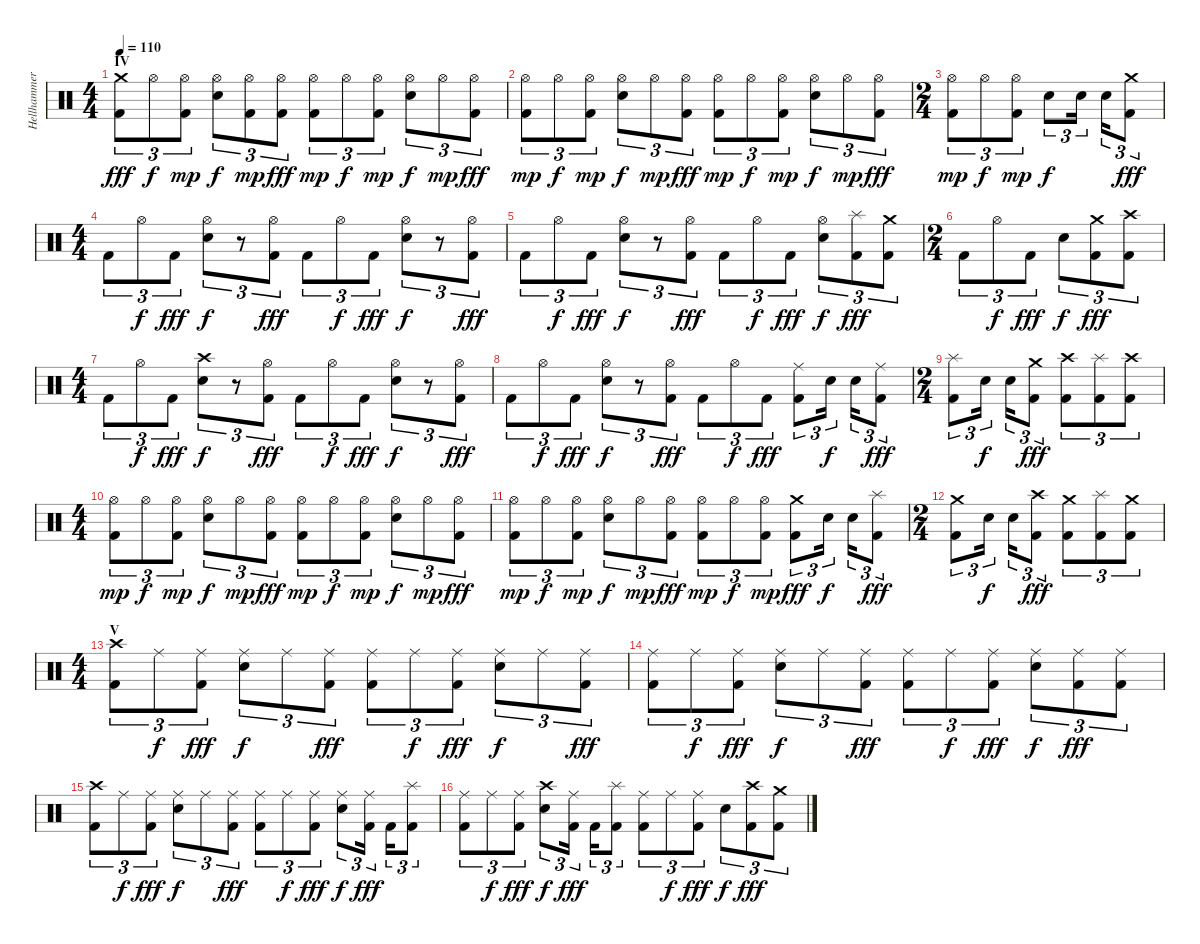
\track ("Hellhammer" "Hellhammer") {instrument percussion}
\staff {score}
\articulation defaults
\ts (4 4)
\section ("" "IV")
\tempo 110
\clef neutral
\ks c
("Kick (hit) 2" "Crash medium (hit)").8{tu (3 2) dy fff} "Hi-Hat (open)".8{tu (3 2) dy f} ("Kick (hit) 2" "Hi-Hat (open)").8{tu (3 2) dy mp} ("Electric Snare (hit)" "Hi-Hat (open)").8{tu (3 2) dy f} ("Kick (hit) 2" "Hi-Hat (open)").8{tu (3 2) dy mp} ("Kick (hit) 2" "Hi-Hat (open)").8{tu (3 2) dy fff} ("Kick (hit) 2" "Hi-Hat (open)").8{tu (3 2) dy mp} "Hi-Hat (open)".8{tu (3 2) dy f} ("Kick (hit) 2" "Hi-Hat (open)").8{tu (3 2) dy mp} ("Electric Snare (hit)" "Hi-Hat (open)").8{tu (3 2) dy f} "Hi-Hat (open)".8{tu (3 2) dy mp} ("Kick (hit) 2" "Hi-Hat (open)").8{tu (3 2) dy fff} |
("Kick (hit) 2" "Hi-Hat (open)").8{tu (3 2) dy mp} "Hi-Hat (open)".8{tu (3 2) dy f} ("Kick (hit) 2" "Hi-Hat (open)").8{tu (3 2) dy mp} ("Electric Snare (hit)" "Hi-Hat (open)").8{tu (3 2) dy f} "Hi-Hat (open)".8{tu (3 2) dy mp} ("Kick (hit) 2" "Hi-Hat (open)").8{tu (3 2) dy fff} ("Kick (hit) 2" "Hi-Hat (open)").8{tu (3 2) dy mp} "Hi-Hat (open)".8{tu (3 2) dy f} ("Kick (hit) 2" "Hi-Hat (open)").8{tu (3 2) dy mp} ("Electric Snare (hit)" "Hi-Hat (open)").8{tu (3 2) dy f} "Hi-Hat (open)".8{tu (3 2) dy mp} ("Kick (hit) 2" "Hi-Hat (open)").8{tu (3 2) dy fff} |
\ts (2 4)
("Kick (hit) 2" "Hi-Hat (open)").8{tu (3 2) dy mp} "Hi-Hat (open)".8{tu (3 2) dy f} ("Kick (hit) 2" "Hi-Hat (open)").8{tu (3 2) dy mp} "Electric Snare (hit)".8{tu (3 2) dy f} "Electric Snare (hit)".16{tu (3 2)} "Electric Snare (hit)".16{tu (3 2)} ("Kick (hit) 2" "Crash medium (hit)").8{tu (3 2) dy fff} |
\ts (4 4)
"Kick (hit) 2".8{tu (3 2)} "Hi-Hat (open)".8{tu (3 2) dy f} "Kick (hit) 2".8{tu (3 2) dy fff} ("Electric Snare (hit)" "Hi-Hat (open)").8{tu (3 2) dy f} r.8{tu (3 2)} ("Kick (hit) 2" "Hi-Hat (open)").8{tu (3 2) dy fff} "Kick (hit) 2".8{tu (3 2)} "Hi-Hat (open)".8{tu (3 2) dy f} "Kick (hit) 2".8{tu (3 2) dy fff} ("Electric Snare (hit)" "Hi-Hat (open)").8{tu (3 2) dy f} r.8{tu (3 2)} ("Kick (hit) 2" "Hi-Hat (open)").8{tu (3 2) dy fff} |
"Kick (hit) 2".8{tu (3 2)} "Hi-Hat (open)".8{tu (3 2) dy f} "Kick (hit) 2".8{tu (3 2) dy fff} ("Electric Snare (hit)" "Hi-Hat (open)").8{tu (3 2) dy f} r.8{tu (3 2)} ("Kick (hit) 2" "Hi-Hat (open)").8{tu (3 2) dy fff} "Kick (hit) 2".8{tu (3 2)} "Hi-Hat (open)".8{tu (3 2) dy f} "Kick (hit) 2".8{tu (3 2) dy fff} ("Electric Snare (hit)" "Hi-Hat (open)").8{tu (3 2) dy f} ("Kick (hit) 2" "Splash (hit)").8{tu (3 2) dy fff} ("Kick (hit) 2" "Crash medium (hit)").8{tu (3 2)} |
\ts (2 4)
"Kick (hit) 2".8{tu (3 2)} "Hi-Hat (open)".8{tu (3 2) dy f} "Kick (hit) 2".8{tu (3 2) dy fff} "Electric Snare (hit)".8{tu (3 2) dy f} ("Kick (hit) 2" "Crash medium (hit)").8{tu (3 2) dy fff} ("Kick (hit) 2" "Crash high (hit)").8{tu (3 2)} |
\ts (4 4)
"Kick (hit) 2".8{tu (3 2)} "Hi-Hat (open)".8{tu (3 2) dy f} "Kick (hit) 2".8{tu (3 2) dy fff} ("Electric Snare (hit)" "Crash high (hit)").8{tu (3 2) dy f} r.8{tu (3 2)} ("Kick (hit) 2" "Hi-Hat (open)").8{tu (3 2) dy fff} "Kick (hit) 2".8{tu (3 2)} "Hi-Hat (open)".8{tu (3 2) dy f} "Kick (hit) 2".8{tu (3 2) dy fff} ("Electric Snare (hit)" "Hi-Hat (open)").8{tu (3 2) dy f} r.8{tu (3 2)} ("Kick (hit) 2" "Hi-Hat (open)").8{tu (3 2) dy fff} |
"Kick (hit) 2".8{tu (3 2)} "Hi-Hat (open)".8{tu (3 2) dy f} "Kick (hit) 2".8{tu (3 2) dy fff} ("Electric Snare (hit)" "Hi-Hat (open)").8{tu (3 2) dy f} r.8{tu (3 2)} ("Kick (hit) 2" "Hi-Hat (open)").8{tu (3 2) dy fff} "Kick (hit) 2".8{tu (3 2)} "Hi-Hat (open)".8{tu (3 2) dy f} "Kick (hit) 2".8{tu (3 2) dy fff} ("Kick (hit) 2" "Ride (middle)").8{tu (3 2)} "Electric Snare (hit)".16{tu (3 2) dy f} "Electric Snare (hit)".16{tu (3 2)} ("Kick (hit) 2" "Ride (middle)").8{tu (3 2) dy fff} |
\ts (2 4)
("Kick (hit) 2" "Splash (hit)").8{tu (3 2)} "Electric Snare (hit)".16{tu (3 2) dy f} "Electric Snare (hit)".16{tu (3 2)} ("Kick (hit) 2" "Crash medium (hit)").8{tu (3 2) dy fff} ("Kick (hit) 2" "Crash high (hit)").8{tu (3 2)} ("Kick (hit) 2" "Splash (hit)").8{tu (3 2)} ("Kick (hit) 2" "Crash high (hit)").8{tu (3 2)} |
\ts (4 4)
("Kick (hit) 2" "Hi-Hat (open)").8{tu (3 2) dy mp} "Hi-Hat (open)".8{tu (3 2) dy f} ("Kick (hit) 2" "Hi-Hat (open)").8{tu (3 2) dy mp} ("Electric Snare (hit)" "Hi-Hat (open)").8{tu (3 2) dy f} "Hi-Hat (open)".8{tu (3 2) dy mp} ("Kick (hit) 2" "Hi-Hat (open)").8{tu (3 2) dy fff} ("Kick (hit) 2" "Hi-Hat (open)").8{tu (3 2) dy mp} "Hi-Hat (open)".8{tu (3 2) dy f} ("Kick (hit) 2" "Hi-Hat (open)").8{tu (3 2) dy mp} ("Electric Snare (hit)" "Hi-Hat (open)").8{tu (3 2) dy f} "Hi-Hat (open)".8{tu (3 2) dy mp} ("Kick (hit) 2" "Hi-Hat (open)").8{tu (3 2) dy fff} |
("Kick (hit) 2" "Hi-Hat (open)").8{tu (3 2) dy mp} "Hi-Hat (open)".8{tu (3 2) dy f} ("Kick (hit) 2" "Hi-Hat (open)").8{tu (3 2) dy mp} ("Electric Snare (hit)" "Hi-Hat (open)").8{tu (3 2) dy f} "Hi-Hat (open)".8{tu (3 2) dy mp} ("Kick (hit) 2" "Hi-Hat (open)").8{tu (3 2) dy fff} ("Kick (hit) 2" "Hi-Hat (open)").8{tu (3 2) dy mp} "Hi-Hat (open)".8{tu (3 2) dy f} ("Kick (hit) 2" "Hi-Hat (open)").8{tu (3 2) dy mp} ("Kick (hit) 2" "Crash medium (hit)").8{tu (3 2) dy fff} "Electric Snare (hit)".16{tu (3 2) dy f} "Electric Snare (hit)".16{tu (3 2)} ("Kick (hit) 2" "Splash (hit)").8{tu (3 2) dy fff} |
\ts (2 4)
("Kick (hit) 2" "Crash medium (hit)").8{tu (3 2)} "Electric Snare (hit)".16{tu (3 2) dy f} "Electric Snare (hit)".16{tu (3 2)} ("Kick (hit) 2" "Crash high (hit)").8{tu (3 2) dy fff} ("Kick (hit) 2" "Crash medium (hit)").8{tu (3 2)} ("Kick (hit) 2" "Splash (hit)").8{tu (3 2)} ("Kick (hit) 2" "Crash medium (hit)").8{tu (3 2)} |
\ts (4 4)
\section ("" "V")
("Kick (hit) 2" "Crash high (hit)").8{tu (3 2)} "Ride (middle)".8{tu (3 2) dy f} ("Kick (hit) 2" "Ride (middle)").8{tu (3 2) dy fff} ("Electric Snare (hit)" "Ride (middle)").8{tu (3 2) dy f} "Ride (middle)".8{tu (3 2)} ("Kick (hit) 2" "Ride (middle)").8{tu (3 2) dy fff} ("Kick (hit) 2" "Ride (middle)").8{tu (3 2)} "Ride (middle)".8{tu (3 2) dy f} ("Kick (hit) 2" "Ride (middle)").8{tu (3 2) dy fff} ("Electric Snare (hit)" "Ride (middle)").8{tu (3 2) dy f} "Ride (middle)".8{tu (3 2)} ("Kick (hit) 2" "Ride (middle)").8{tu (3 2) dy fff} |
("Kick (hit) 2" "Ride (middle)").8{tu (3 2)} "Ride (middle)".8{tu (3 2) dy f} ("Kick (hit) 2" "Ride (middle)").8{tu (3 2) dy fff} ("Electric Snare (hit)" "Ride (middle)").8{tu (3 2) dy f} "Ride (middle)".8{tu (3 2)} ("Kick (hit) 2" "Ride (middle)").8{tu (3 2) dy fff} ("Kick (hit) 2" "Ride (middle)").8{tu (3 2)} "Ride (middle)".8{tu (3 2) dy f} ("Kick (hit) 2" "Ride (middle)").8{tu (3 2) dy fff} ("Electric Snare (hit)" "Ride (middle)").8{tu (3 2) dy f} ("Kick (hit) 2" "Ride (middle)").8{tu (3 2) dy fff} ("Kick (hit) 2" "Ride (middle)").8{tu (3 2)} |
("Kick (hit) 2" "Crash high (hit)").8{tu (3 2)} "Ride (middle)".8{tu (3 2) dy f} ("Kick (hit) 2" "Ride (middle)").8{tu (3 2) dy fff} ("Electric Snare (hit)" "Ride (middle)").8{tu (3 2) dy f} "Ride (middle)".8{tu (3 2)} ("Kick (hit) 2" "Ride (middle)").8{tu (3 2) dy fff} ("Kick (hit) 2" "Ride (middle)").8{tu (3 2)} "Ride (middle)".8{tu (3 2) dy f} ("Kick (hit) 2" "Ride (middle)").8{tu (3 2) dy fff} ("Electric Snare (hit)" "Ride (middle)").8{tu (3 2) dy f} ("Kick (hit) 2" "Ride (middle)").16{tu (3 2) dy fff} "Kick (hit) 2".16{tu (3 2)} ("Kick (hit) 2" "Splash (hit)").8{tu (3 2)} |
("Kick (hit) 2" "Ride (middle)").8{tu (3 2)} "Ride (middle)".8{tu (3 2) dy f} ("Kick (hit) 2" "Ride (middle)").8{tu (3 2) dy fff} ("Electric Snare (hit)" "Crash high (hit)").8{tu (3 2) dy f} ("Kick (hit) 2" "Ride (middle)").16{tu (3 2) dy fff} "Kick (hit) 2".16{tu (3 2)} ("Kick (hit) 2" "Splash (hit)").8{tu (3 2)} ("Kick (hit) 2" "Ride (middle)").8{tu (3 2)} "Ride (middle)".8{tu (3 2) dy f} ("Kick (hit) 2" "Ride (middle)").8{tu (3 2) dy fff} "Electric Snare (hit)".8{tu (3 2) dy f} ("Kick (hit) 2" "Crash high (hit)").8{tu (3 2) dy fff} ("Kick (hit) 2" "Crash medium (hit)").8{tu (3 2)}
